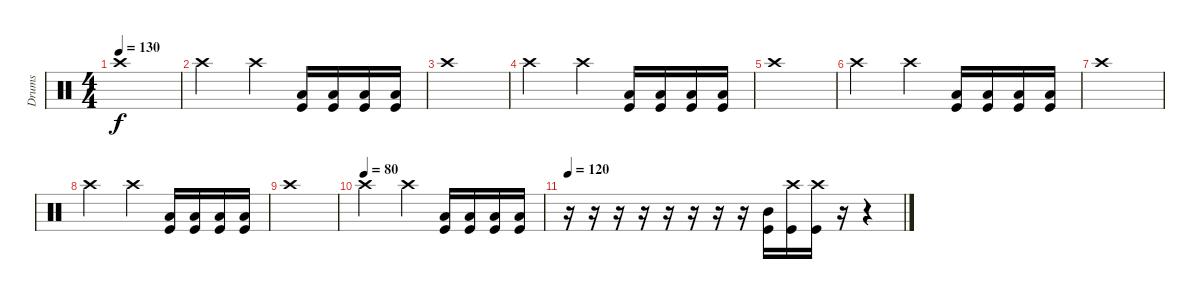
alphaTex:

\track ("Drums" "Drums") {instrument percussion}
\staff {score}
\articulation defaults
\ts (4 4)
\tempo 130
\clef neutral
\ks c "Crash high (hit)".1{dy f}
|
"Crash high (hit)".2 "Crash high (hit)".4 ("Low Tom (hit)" "Kick (hit)").16 ("Low Tom (hit)" "Kick (hit)").16 ("Low Tom (hit)" "Kick (hit)").16 ("Low Tom (hit)" "Kick (hit)").16 |
"Crash high (hit)".1 |
"Crash high (hit)".2 "Crash high (hit)".4 ("Low Tom (hit)" "Kick (hit)").16 ("Low Tom (hit)" "Kick (hit)").16 ("Low Tom (hit)" "Kick (hit)").16 ("Low Tom (hit)" "Kick (hit)").16 |
"Crash high (hit)".1 |
"Crash high (hit)".2 "Crash high (hit)".4 ("Low Tom (hit)" "Kick (hit)").16 ("Low Tom (hit)" "Kick (hit)").16 ("Low Tom (hit)" "Kick (hit)").16 ("Low Tom (hit)" "Kick (hit)").16 |
"Crash high (hit)".1 |
"Crash high (hit)".2 "Crash high (hit)".4 ("Low Tom (hit)" "Kick (hit)").16 ("Low Tom (hit)" "Kick (hit)").16 ("Low Tom (hit)" "Kick (hit)").16 ("Low Tom (hit)" "Kick (hit)").16 |
"Crash high (hit)".1 |
\tempo (80)
"Crash high (hit)".2 "Crash high (hit)".4 ("Low Tom (hit)" "Kick (hit)").16 ("Low Tom (hit)" "Kick (hit)").16 ("Low Tom (hit)" "Kick (hit)").16 ("Low Tom (hit)" "Kick (hit)").16 |
\tempo 120
r.16 r.16 r.16 r.16 r.16 r.16 r.16 r.16 ("Mid Tom (hit)" "Kick (hit)").16 ("Crash high (hit)" "Kick (hit)").16 ("Crash high (hit)" "Kick (hit)").16 r.16 r.4
